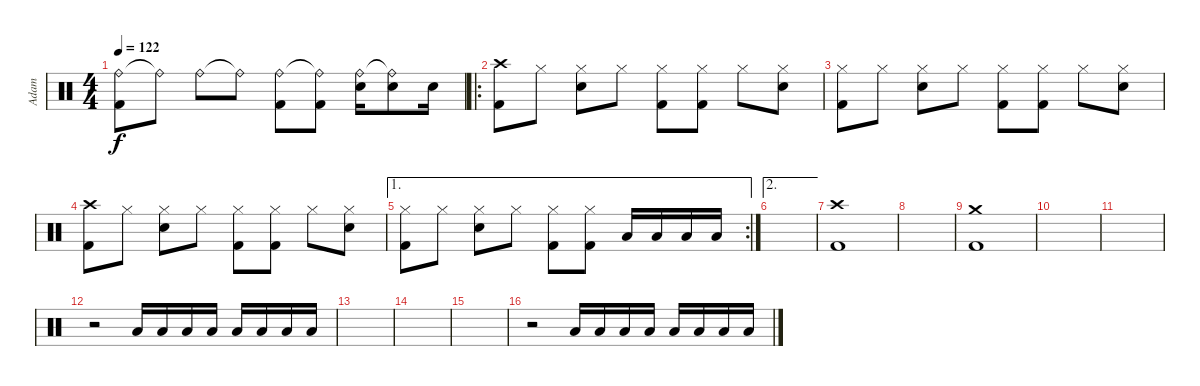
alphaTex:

\track ("Adam" "Adam") {instrument percussion}
\staff {score}
\articulation defaults
\ts (4 4)
\tempo 122
\clef neutral
\ks c
("Ride (bell)" "Kick (hit) 2").8{dy f} "Ride (bell)"{t}.8 "Ride (bell)".8 "Ride (bell)"{t}.8 ("Ride (bell)" "Kick (hit) 2").8 ("Ride (bell)"{t} "Kick (hit) 2").8 ("Ride (bell)" "Snare (hit) 2").16 ("Ride (bell)"{t} "Snare (hit) 2").8 "Snare (hit) 2".16 |
\ro
("Crash high (hit)" "Kick (hit) 2").8 "Hi-Hat (closed)".8 ("Hi-Hat (closed)" "Electric Snare (hit)").8 "Hi-Hat (closed)".8 ("Hi-Hat (closed)" "Kick (hit) 2").8 ("Hi-Hat (closed)" "Kick (hit) 2").8 "Hi-Hat (closed)".8 ("Hi-Hat (closed)" "Electric Snare (hit)").8 |
("Hi-Hat (closed)" "Kick (hit) 2").8 "Hi-Hat (closed)".8 ("Hi-Hat (closed)" "Electric Snare (hit)").8 "Hi-Hat (closed)".8 ("Hi-Hat (closed)" "Kick (hit) 2").8 ("Hi-Hat (closed)" "Kick (hit) 2").8 "Hi-Hat (closed)".8 ("Hi-Hat (closed)" "Electric Snare (hit)").8 |
("Crash high (hit)" "Kick (hit) 2").8 "Hi-Hat (closed)".8 ("Hi-Hat (closed)" "Electric Snare (hit)").8 "Hi-Hat (closed)".8 ("Hi-Hat (closed)" "Kick (hit) 2").8 ("Hi-Hat (closed)" "Kick (hit) 2").8 "Hi-Hat (closed)".8 ("Hi-Hat (closed)" "Electric Snare (hit)").8 |
\ae 1
\rc 2
("Hi-Hat (closed)" "Kick (hit) 2").8 "Hi-Hat (closed)".8 ("Hi-Hat (closed)" "Electric Snare (hit)").8 "Hi-Hat (closed)".8 ("Hi-Hat (closed)" "Kick (hit) 2").8 ("Hi-Hat (closed)" "Kick (hit) 2").8 "Low Tom (hit)".16 "Low Tom (hit)".16 "Low Tom (hit)".16 "Low Tom (hit)".16 |
\ae 2
|
("Crash high (hit)" "Kick (hit) 2").1 |
|
("Crash medium (hit)" "Kick (hit) 2").1 |
|
|
r.2 "Low Tom (hit)".16 "Low Tom (hit)".16 "Low Tom (hit)".16 "Low Tom (hit)".16 "Low Tom (hit)".16 "Low Tom (hit)".16 "Low Tom (hit)".16 "Low Tom (hit)".16 |
|
|
|
r.2 "Low Tom (hit)".16 "Low Tom (hit)".16 "Low Tom (hit)".16 "Low Tom (hit)".16 "Low Tom (hit)".16 "Low Tom (hit)".16 "Low Tom (hit)".16 "Low Tom (hit)".16
